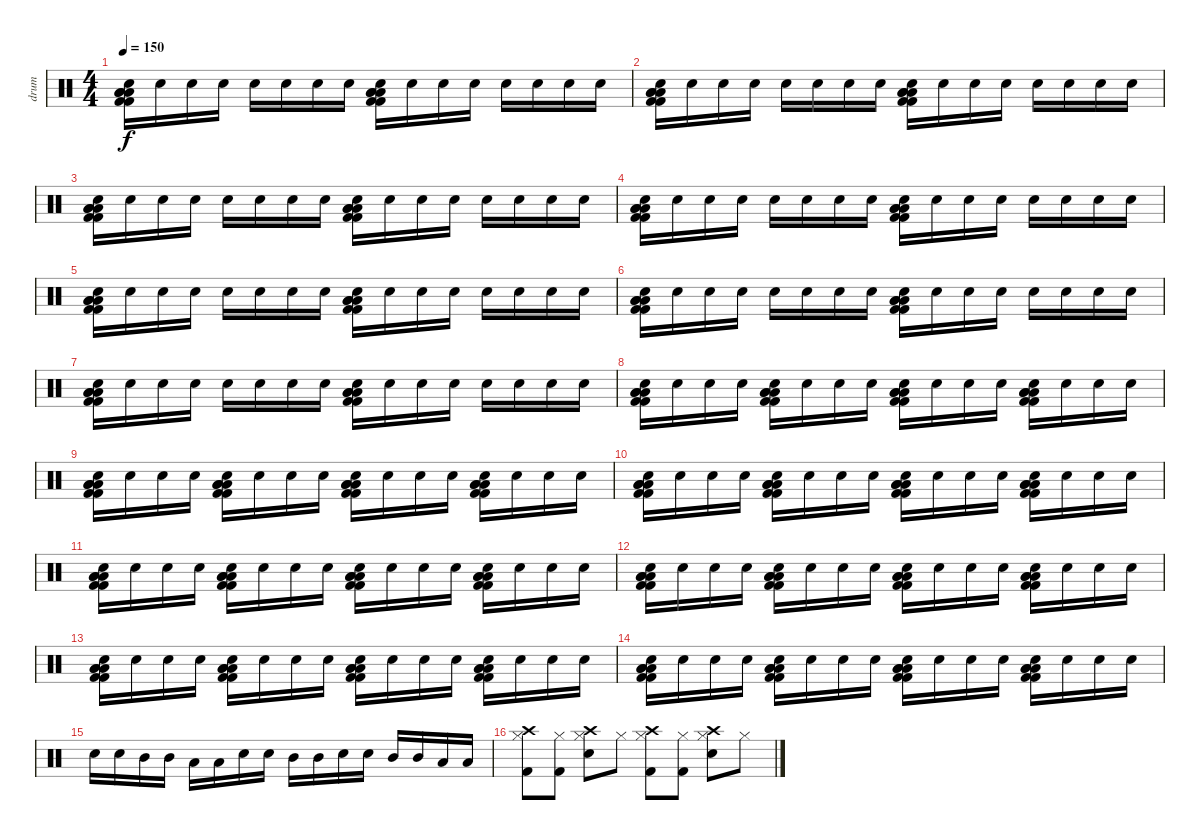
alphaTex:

\track ("drum" "drum") {instrument percussion}
\staff {score}
\articulation defaults
\ts (4 4)
\tempo 150
\clef neutral
\ks c
("Low Floor Tom (hit)" "Kick (hit) 2" "Kick (hit) 2" "Low Floor Tom (hit)" "Low Floor Tom (hit)" "Electric Snare (hit)").16{dy f} "Electric Snare (hit)".16 "Electric Snare (hit)".16 "Electric Snare (hit)".16 "Electric Snare (hit)".16 "Electric Snare (hit)".16 "Electric Snare (hit)".16 "Electric Snare (hit)".16 ("Low Floor Tom (hit)" "Kick (hit) 2" "Kick (hit) 2" "Low Floor Tom (hit)" "Low Floor Tom (hit)" "Electric Snare (hit)").16 "Electric Snare (hit)".16 "Electric Snare (hit)".16 "Electric Snare (hit)".16 "Electric Snare (hit)".16 "Electric Snare (hit)".16 "Electric Snare (hit)".16 "Electric Snare (hit)".16 |
("Low Floor Tom (hit)" "Kick (hit) 2" "Kick (hit) 2" "Low Floor Tom (hit)" "Low Floor Tom (hit)" "Electric Snare (hit)").16 "Electric Snare (hit)".16 "Electric Snare (hit)".16 "Electric Snare (hit)".16 "Electric Snare (hit)".16 "Electric Snare (hit)".16 "Electric Snare (hit)".16 "Electric Snare (hit)".16 ("Low Floor Tom (hit)" "Kick (hit) 2" "Kick (hit) 2" "Low Floor Tom (hit)" "Low Floor Tom (hit)" "Electric Snare (hit)").16 "Electric Snare (hit)".16 "Electric Snare (hit)".16 "Electric Snare (hit)".16 "Electric Snare (hit)".16 "Electric Snare (hit)".16 "Electric Snare (hit)".16 "Electric Snare (hit)".16 |
("Low Floor Tom (hit)" "Kick (hit) 2" "Kick (hit) 2" "Low Floor Tom (hit)" "Low Floor Tom (hit)" "Electric Snare (hit)").16 "Electric Snare (hit)".16 "Electric Snare (hit)".16 "Electric Snare (hit)".16 "Electric Snare (hit)".16 "Electric Snare (hit)".16 "Electric Snare (hit)".16 "Electric Snare (hit)".16 ("Low Floor Tom (hit)" "Kick (hit) 2" "Kick (hit) 2" "Low Floor Tom (hit)" "Low Floor Tom (hit)" "Electric Snare (hit)").16 "Electric Snare (hit)".16 "Electric Snare (hit)".16 "Electric Snare (hit)".16 "Electric Snare (hit)".16 "Electric Snare (hit)".16 "Electric Snare (hit)".16 "Electric Snare (hit)".16 |
("Low Floor Tom (hit)" "Kick (hit) 2" "Kick (hit) 2" "Low Floor Tom (hit)" "Low Floor Tom (hit)" "Electric Snare (hit)").16 "Electric Snare (hit)".16 "Electric Snare (hit)".16 "Electric Snare (hit)".16 "Electric Snare (hit)".16 "Electric Snare (hit)".16 "Electric Snare (hit)".16 "Electric Snare (hit)".16 ("Low Floor Tom (hit)" "Kick (hit) 2" "Kick (hit) 2" "Low Floor Tom (hit)" "Low Floor Tom (hit)" "Electric Snare (hit)").16 "Electric Snare (hit)".16 "Electric Snare (hit)".16 "Electric Snare (hit)".16 "Electric Snare (hit)".16 "Electric Snare (hit)".16 "Electric Snare (hit)".16 "Electric Snare (hit)".16 |
("Low Floor Tom (hit)" "Kick (hit) 2" "Kick (hit) 2" "Low Floor Tom (hit)" "Low Floor Tom (hit)" "Electric Snare (hit)").16 "Electric Snare (hit)".16 "Electric Snare (hit)".16 "Electric Snare (hit)".16 "Electric Snare (hit)".16 "Electric Snare (hit)".16 "Electric Snare (hit)".16 "Electric Snare (hit)".16 ("Low Floor Tom (hit)" "Kick (hit) 2" "Kick (hit) 2" "Low Floor Tom (hit)" "Low Floor Tom (hit)" "Electric Snare (hit)").16 "Electric Snare (hit)".16 "Electric Snare (hit)".16 "Electric Snare (hit)".16 "Electric Snare (hit)".16 "Electric Snare (hit)".16 "Electric Snare (hit)".16 "Electric Snare (hit)".16 |
("Low Floor Tom (hit)" "Kick (hit) 2" "Kick (hit) 2" "Low Floor Tom (hit)" "Low Floor Tom (hit)" "Electric Snare (hit)").16 "Electric Snare (hit)".16 "Electric Snare (hit)".16 "Electric Snare (hit)".16 "Electric Snare (hit)".16 "Electric Snare (hit)".16 "Electric Snare (hit)".16 "Electric Snare (hit)".16 ("Low Floor Tom (hit)" "Kick (hit) 2" "Kick (hit) 2" "Low Floor Tom (hit)" "Low Floor Tom (hit)" "Electric Snare (hit)").16 "Electric Snare (hit)".16 "Electric Snare (hit)".16 "Electric Snare (hit)".16 "Electric Snare (hit)".16 "Electric Snare (hit)".16 "Electric Snare (hit)".16 "Electric Snare (hit)".16 |
("Low Floor Tom (hit)" "Kick (hit) 2" "Kick (hit) 2" "Low Floor Tom (hit)" "Low Floor Tom (hit)" "Electric Snare (hit)").16 "Electric Snare (hit)".16 "Electric Snare (hit)".16 "Electric Snare (hit)".16 "Electric Snare (hit)".16 "Electric Snare (hit)".16 "Electric Snare (hit)".16 "Electric Snare (hit)".16 ("Low Floor Tom (hit)" "Kick (hit) 2" "Kick (hit) 2" "Low Floor Tom (hit)" "Low Floor Tom (hit)" "Electric Snare (hit)").16 "Electric Snare (hit)".16 "Electric Snare (hit)".16 "Electric Snare (hit)".16 "Electric Snare (hit)".16 "Electric Snare (hit)".16 "Electric Snare (hit)".16 "Electric Snare (hit)".16 |
("Low Floor Tom (hit)" "Kick (hit) 2" "Kick (hit) 2" "Low Floor Tom (hit)" "Low Floor Tom (hit)" "Electric Snare (hit)").16 "Electric Snare (hit)".16 "Electric Snare (hit)".16 "Electric Snare (hit)".16 ("Low Floor Tom (hit)" "Kick (hit) 2" "Kick (hit) 2" "Low Floor Tom (hit)" "Low Floor Tom (hit)" "Electric Snare (hit)").16 "Electric Snare (hit)".16 "Electric Snare (hit)".16 "Electric Snare (hit)".16 ("Low Floor Tom (hit)" "Kick (hit) 2" "Kick (hit) 2" "Low Floor Tom (hit)" "Low Floor Tom (hit)" "Electric Snare (hit)").16 "Electric Snare (hit)".16 "Electric Snare (hit)".16 "Electric Snare (hit)".16 ("Low Floor Tom (hit)" "Kick (hit) 2" "Kick (hit) 2" "Low Floor Tom (hit)" "Low Floor Tom (hit)" "Electric Snare (hit)").16 "Electric Snare (hit)".16 "Electric Snare (hit)".16 "Electric Snare (hit)".16 |
("Low Floor Tom (hit)" "Kick (hit) 2" "Kick (hit) 2" "Low Floor Tom (hit)" "Low Floor Tom (hit)" "Electric Snare (hit)").16 "Electric Snare (hit)".16 "Electric Snare (hit)".16 "Electric Snare (hit)".16 ("Low Floor Tom (hit)" "Kick (hit) 2" "Kick (hit) 2" "Low Floor Tom (hit)" "Low Floor Tom (hit)" "Electric Snare (hit)").16 "Electric Snare (hit)".16 "Electric Snare (hit)".16 "Electric Snare (hit)".16 ("Low Floor Tom (hit)" "Kick (hit) 2" "Kick (hit) 2" "Low Floor Tom (hit)" "Low Floor Tom (hit)" "Electric Snare (hit)").16 "Electric Snare (hit)".16 "Electric Snare (hit)".16 "Electric Snare (hit)".16 ("Low Floor Tom (hit)" "Kick (hit) 2" "Kick (hit) 2" "Low Floor Tom (hit)" "Low Floor Tom (hit)" "Electric Snare (hit)").16 "Electric Snare (hit)".16 "Electric Snare (hit)".16 "Electric Snare (hit)".16 |
("Low Floor Tom (hit)" "Kick (hit) 2" "Kick (hit) 2" "Low Floor Tom (hit)" "Low Floor Tom (hit)" "Electric Snare (hit)").16 "Electric Snare (hit)".16 "Electric Snare (hit)".16 "Electric Snare (hit)".16 ("Low Floor Tom (hit)" "Kick (hit) 2" "Kick (hit) 2" "Low Floor Tom (hit)" "Low Floor Tom (hit)" "Electric Snare (hit)").16 "Electric Snare (hit)".16 "Electric Snare (hit)".16 "Electric Snare (hit)".16 ("Low Floor Tom (hit)" "Kick (hit) 2" "Kick (hit) 2" "Low Floor Tom (hit)" "Low Floor Tom (hit)" "Electric Snare (hit)").16 "Electric Snare (hit)".16 "Electric Snare (hit)".16 "Electric Snare (hit)".16 ("Low Floor Tom (hit)" "Kick (hit) 2" "Kick (hit) 2" "Low Floor Tom (hit)" "Low Floor Tom (hit)" "Electric Snare (hit)").16 "Electric Snare (hit)".16 "Electric Snare (hit)".16 "Electric Snare (hit)".16 |
("Low Floor Tom (hit)" "Kick (hit) 2" "Kick (hit) 2" "Low Floor Tom (hit)" "Low Floor Tom (hit)" "Electric Snare (hit)").16 "Electric Snare (hit)".16 "Electric Snare (hit)".16 "Electric Snare (hit)".16 ("Low Floor Tom (hit)" "Kick (hit) 2" "Kick (hit) 2" "Low Floor Tom (hit)" "Low Floor Tom (hit)" "Electric Snare (hit)").16 "Electric Snare (hit)".16 "Electric Snare (hit)".16 "Electric Snare (hit)".16 ("Low Floor Tom (hit)" "Kick (hit) 2" "Kick (hit) 2" "Low Floor Tom (hit)" "Low Floor Tom (hit)" "Electric Snare (hit)").16 "Electric Snare (hit)".16 "Electric Snare (hit)".16 "Electric Snare (hit)".16 ("Low Floor Tom (hit)" "Kick (hit) 2" "Kick (hit) 2" "Low Floor Tom (hit)" "Low Floor Tom (hit)" "Electric Snare (hit)").16 "Electric Snare (hit)".16 "Electric Snare (hit)".16 "Electric Snare (hit)".16 |
("Low Floor Tom (hit)" "Kick (hit) 2" "Kick (hit) 2" "Low Floor Tom (hit)" "Low Floor Tom (hit)" "Electric Snare (hit)").16{volume 16} "Electric Snare (hit)".16 "Electric Snare (hit)".16 "Electric Snare (hit)".16 ("Low Floor Tom (hit)" "Kick (hit) 2" "Kick (hit) 2" "Low Floor Tom (hit)" "Low Floor Tom (hit)" "Electric Snare (hit)").16 "Electric Snare (hit)".16 "Electric Snare (hit)".16 "Electric Snare (hit)".16 ("Low Floor Tom (hit)" "Kick (hit) 2" "Kick (hit) 2" "Low Floor Tom (hit)" "Low Floor Tom (hit)" "Electric Snare (hit)").16 "Electric Snare (hit)".16 "Electric Snare (hit)".16 "Electric Snare (hit)".16 ("Low Floor Tom (hit)" "Kick (hit) 2" "Kick (hit) 2" "Low Floor Tom (hit)" "Low Floor Tom (hit)" "Electric Snare (hit)").16 "Electric Snare (hit)".16 "Electric Snare (hit)".16 "Electric Snare (hit)".16 |
("Low Floor Tom (hit)" "Kick (hit) 2" "Kick (hit) 2" "Low Floor Tom (hit)" "Low Floor Tom (hit)" "Electric Snare (hit)").16 "Electric Snare (hit)".16 "Electric Snare (hit)".16 "Electric Snare (hit)".16 ("Low Floor Tom (hit)" "Kick (hit) 2" "Kick (hit) 2" "Low Floor Tom (hit)" "Low Floor Tom (hit)" "Electric Snare (hit)").16 "Electric Snare (hit)".16 "Electric Snare (hit)".16 "Electric Snare (hit)".16 ("Low Floor Tom (hit)" "Kick (hit) 2" "Kick (hit) 2" "Low Floor Tom (hit)" "Low Floor Tom (hit)" "Electric Snare (hit)").16 "Electric Snare (hit)".16 "Electric Snare (hit)".16 "Electric Snare (hit)".16 ("Low Floor Tom (hit)" "Kick (hit) 2" "Kick (hit) 2" "Low Floor Tom (hit)" "Low Floor Tom (hit)" "Electric Snare (hit)").16 "Electric Snare (hit)".16 "Electric Snare (hit)".16 "Electric Snare (hit)".16 |
("Low Floor Tom (hit)" "Kick (hit) 2" "Kick (hit) 2" "Low Floor Tom (hit)" "Low Floor Tom (hit)" "Electric Snare (hit)").16 "Electric Snare (hit)".16 "Electric Snare (hit)".16 "Electric Snare (hit)".16 ("Low Floor Tom (hit)" "Kick (hit) 2" "Kick (hit) 2" "Low Floor Tom (hit)" "Low Floor Tom (hit)" "Electric Snare (hit)").16 "Electric Snare (hit)".16 "Electric Snare (hit)".16 "Electric Snare (hit)".16 ("Low Floor Tom (hit)" "Kick (hit) 2" "Kick (hit) 2" "Low Floor Tom (hit)" "Low Floor Tom (hit)" "Electric Snare (hit)").16 "Electric Snare (hit)".16 "Electric Snare (hit)".16 "Electric Snare (hit)".16 ("Low Floor Tom (hit)" "Kick (hit) 2" "Kick (hit) 2" "Low Floor Tom (hit)" "Low Floor Tom (hit)" "Electric Snare (hit)").16 "Electric Snare (hit)".16 "Electric Snare (hit)".16 "Electric Snare (hit)".16 |
"Electric Snare (hit)".16 "Electric Snare (hit)".16 "Mid Tom (hit)".16 "Mid Tom (hit)".16 "Low Tom (hit)".16 "Low Tom (hit)".16 "Electric Snare (hit)".16 "Electric Snare (hit)".16 "Mid Tom (hit)".16 "Mid Tom (hit)".16 "Electric Snare (hit)".16 "Electric Snare (hit)".16 "Mid Tom (hit)".16 "Mid Tom (hit)".16 "Low Tom (hit)".16 "Low Tom (hit)".16 |
("Crash high (hit)" "Hi-Hat (closed)" "Kick (hit) 2").8 ("Hi-Hat (closed)" "Kick (hit) 2").8 ("Crash high (hit)" "Hi-Hat (closed)" "Electric Snare (hit)").8 "Hi-Hat (closed)".8 ("Crash high (hit)" "Hi-Hat (closed)" "Kick (hit) 2").8 ("Hi-Hat (closed)" "Kick (hit) 2").8 ("Crash high (hit)" "Hi-Hat (closed)" "Electric Snare (hit)").8 "Hi-Hat (closed)".8
